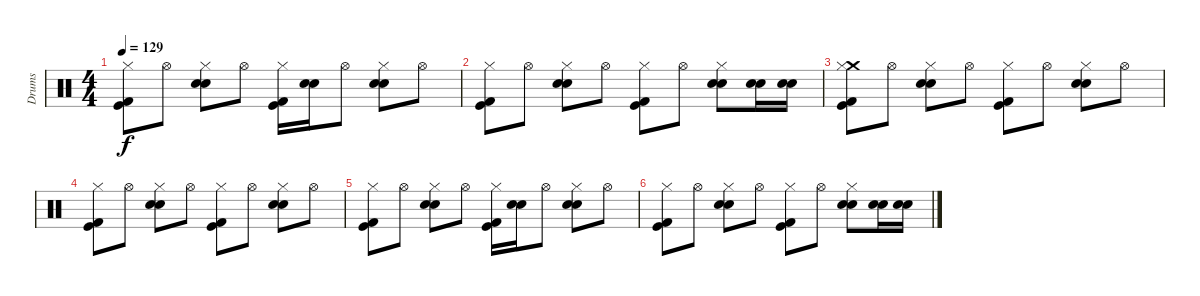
\track ("Drums" "Drums") {instrument percussion}
\staff {score}
\articulation defaults
\ts (4 4)
\tempo 129
\clef neutral
\ks c
("Hi-Hat (closed)" "Kick (hit) 2" "Kick (hit)").8{dy f} "Hi-Hat (open)".8 ("Hi-Hat (closed)" "Snare (hit) 2" "Snare (hit) 2").8 "Hi-Hat (open)".8 ("Hi-Hat (closed)" "Kick (hit) 2" "Kick (hit)").16 ("Snare (hit) 2" "Snare (hit) 2").16 "Hi-Hat (open)".8 ("Hi-Hat (closed)" "Snare (hit) 2" "Snare (hit) 2").8 "Hi-Hat (open)".8 |
("Hi-Hat (closed)" "Kick (hit) 2" "Kick (hit)").8 "Hi-Hat (open)".8 ("Hi-Hat (closed)" "Snare (hit) 2" "Snare (hit) 2").8 "Hi-Hat (open)".8 ("Hi-Hat (closed)" "Kick (hit) 2" "Kick (hit)").8 "Hi-Hat (open)".8 ("Hi-Hat (closed)" "Snare (hit) 2" "Snare (hit) 2").8 ("Snare (hit) 2" "Snare (hit) 2").16 ("Snare (hit) 2" "Snare (hit) 2").16 |
("Crash medium (hit)" "Hi-Hat (closed)" "Kick (hit) 2" "Kick (hit)").8 "Hi-Hat (open)".8 ("Hi-Hat (closed)" "Snare (hit) 2" "Snare (hit) 2").8 "Hi-Hat (open)".8 ("Hi-Hat (closed)" "Kick (hit) 2" "Kick (hit)").8 "Hi-Hat (open)".8 ("Hi-Hat (closed)" "Snare (hit) 2" "Snare (hit) 2").8 "Hi-Hat (open)".8 |
("Hi-Hat (closed)" "Kick (hit) 2" "Kick (hit)").8 "Hi-Hat (open)".8 ("Hi-Hat (closed)" "Snare (hit) 2" "Snare (hit) 2").8 "Hi-Hat (open)".8 ("Hi-Hat (closed)" "Kick (hit) 2" "Kick (hit)").8 "Hi-Hat (open)".8 ("Hi-Hat (closed)" "Snare (hit) 2" "Snare (hit) 2").8 "Hi-Hat (open)".8 |
("Hi-Hat (closed)" "Kick (hit) 2" "Kick (hit)").8 "Hi-Hat (open)".8 ("Hi-Hat (closed)" "Snare (hit) 2" "Snare (hit) 2").8 "Hi-Hat (open)".8 ("Hi-Hat (closed)" "Kick (hit) 2" "Kick (hit)").16 ("Snare (hit) 2" "Snare (hit) 2").16 "Hi-Hat (open)".8 ("Hi-Hat (closed)" "Snare (hit) 2" "Snare (hit) 2").8 "Hi-Hat (open)".8 |
("Hi-Hat (closed)" "Kick (hit) 2" "Kick (hit)").8 "Hi-Hat (open)".8 ("Hi-Hat (closed)" "Snare (hit) 2" "Snare (hit) 2").8 "Hi-Hat (open)".8 ("Hi-Hat (closed)" "Kick (hit) 2" "Kick (hit)").8 "Hi-Hat (open)".8 ("Hi-Hat (closed)" "Snare (hit) 2" "Snare (hit) 2").8 ("Snare (hit) 2" "Snare (hit) 2").16 ("Snare (hit) 2" "Snare (hit) 2").16
